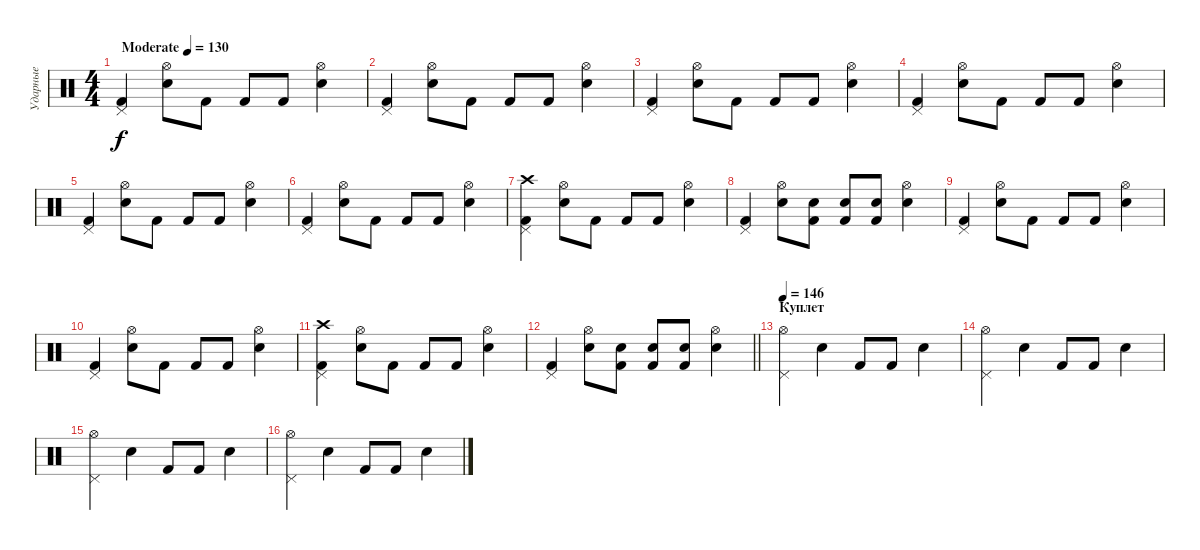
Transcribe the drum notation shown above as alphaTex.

\track ("Ударные" "Ударные") {instrument percussion}
\staff {score}
\articulation defaults
\ts (4 4)
\tempo (130 "Moderate")
\clef neutral
\ks c
("Kick (hit) 2" "Pedal Hi-Hat (hit)").4{dy f} ("Electric Snare (hit)" "Hi-Hat (open)").8 "Kick (hit) 2".8 "Kick (hit) 2".8 "Kick (hit) 2".8 ("Electric Snare (hit)" "Hi-Hat (open)").4 |
("Kick (hit) 2" "Pedal Hi-Hat (hit)").4 ("Electric Snare (hit)" "Hi-Hat (open)").8 "Kick (hit) 2".8 "Kick (hit) 2".8 "Kick (hit) 2".8 ("Electric Snare (hit)" "Hi-Hat (open)").4 |
("Kick (hit) 2" "Pedal Hi-Hat (hit)").4 ("Electric Snare (hit)" "Hi-Hat (open)").8 "Kick (hit) 2".8 "Kick (hit) 2".8 "Kick (hit) 2".8 ("Electric Snare (hit)" "Hi-Hat (open)").4 |
("Kick (hit) 2" "Pedal Hi-Hat (hit)").4 ("Electric Snare (hit)" "Hi-Hat (open)").8 "Kick (hit) 2".8 "Kick (hit) 2".8 "Kick (hit) 2".8 ("Electric Snare (hit)" "Hi-Hat (open)").4 |
("Kick (hit) 2" "Pedal Hi-Hat (hit)").4 ("Electric Snare (hit)" "Hi-Hat (open)").8 "Kick (hit) 2".8 "Kick (hit) 2".8 "Kick (hit) 2".8 ("Electric Snare (hit)" "Hi-Hat (open)").4 |
("Kick (hit) 2" "Pedal Hi-Hat (hit)").4 ("Electric Snare (hit)" "Hi-Hat (open)").8 "Kick (hit) 2".8 "Kick (hit) 2".8 "Kick (hit) 2".8 ("Electric Snare (hit)" "Hi-Hat (open)").4 |
("Kick (hit) 2" "Crash high (hit)" "Pedal Hi-Hat (hit)").4 ("Electric Snare (hit)" "Hi-Hat (open)").8 "Kick (hit) 2".8 "Kick (hit) 2".8 "Kick (hit) 2".8 ("Electric Snare (hit)" "Hi-Hat (open)").4 |
("Kick (hit) 2" "Pedal Hi-Hat (hit)").4 ("Electric Snare (hit)" "Hi-Hat (open)").8 ("Electric Snare (hit)" "Kick (hit) 2").8 ("Electric Snare (hit)" "Kick (hit) 2").8 ("Electric Snare (hit)" "Kick (hit) 2").8 ("Electric Snare (hit)" "Hi-Hat (open)").4 |
("Kick (hit) 2" "Pedal Hi-Hat (hit)").4 ("Electric Snare (hit)" "Hi-Hat (open)").8 "Kick (hit) 2".8 "Kick (hit) 2".8 "Kick (hit) 2".8 ("Electric Snare (hit)" "Hi-Hat (open)").4 |
("Kick (hit) 2" "Pedal Hi-Hat (hit)").4 ("Electric Snare (hit)" "Hi-Hat (open)").8 "Kick (hit) 2".8 "Kick (hit) 2".8 "Kick (hit) 2".8 ("Electric Snare (hit)" "Hi-Hat (open)").4 |
("Kick (hit) 2" "Crash high (hit)" "Pedal Hi-Hat (hit)").4 ("Electric Snare (hit)" "Hi-Hat (open)").8 "Kick (hit) 2".8 "Kick (hit) 2".8 "Kick (hit) 2".8 ("Electric Snare (hit)" "Hi-Hat (open)").4 |
\barLineRight lightlight
("Kick (hit) 2" "Pedal Hi-Hat (hit)").4 ("Electric Snare (hit)" "Hi-Hat (open)").8 ("Electric Snare (hit)" "Kick (hit) 2").8 ("Electric Snare (hit)" "Kick (hit) 2").8 ("Electric Snare (hit)" "Kick (hit) 2").8 ("Electric Snare (hit)" "Hi-Hat (open)").4 |
\section ("" "Куплет")
\tempo 146
("Pedal Hi-Hat (hit)" "Hi-Hat (open)").4 "Snare (hit) 2".4 "Kick (hit) 2".8 "Kick (hit) 2".8 "Snare (hit) 2".4 |
("Pedal Hi-Hat (hit)" "Hi-Hat (open)").4 "Snare (hit) 2".4 "Kick (hit) 2".8 "Kick (hit) 2".8 "Snare (hit) 2".4 |
("Pedal Hi-Hat (hit)" "Hi-Hat (open)").4 "Snare (hit) 2".4 "Kick (hit) 2".8 "Kick (hit) 2".8 "Snare (hit) 2".4 |
("Pedal Hi-Hat (hit)" "Hi-Hat (open)").4 "Snare (hit) 2".4 "Kick (hit) 2".8 "Kick (hit) 2".8 "Snare (hit) 2".4
